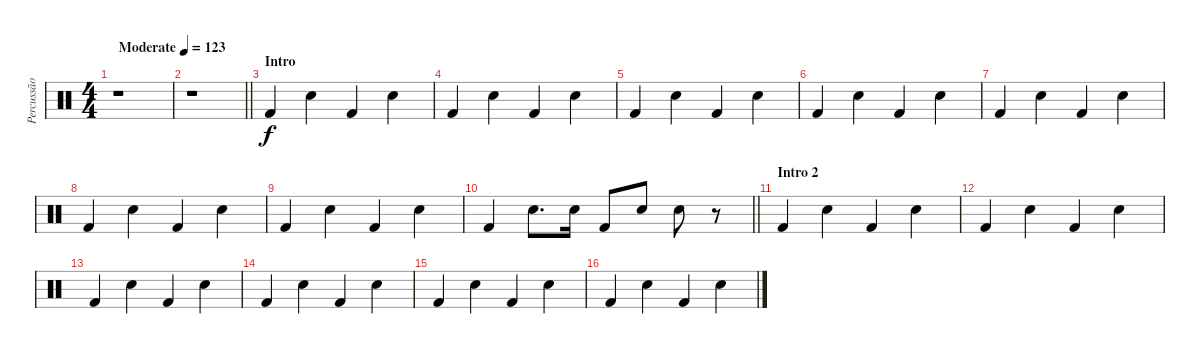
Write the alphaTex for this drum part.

\track ("Percussão" "Percussão") {instrument percussion}
\staff {score}
\articulation defaults
\ts (4 4)
\tempo (123 "Moderate")
\clef neutral
\ks c
r.1{dy f} |
\barLineRight lightlight
r.1 |
\section ("" "Intro")
"Kick (hit) 2".4 "Snare (hit) 2".4 "Kick (hit) 2".4 "Snare (hit) 2".4 |
"Kick (hit) 2".4 "Snare (hit) 2".4 "Kick (hit) 2".4 "Snare (hit) 2".4 |
"Kick (hit) 2".4 "Snare (hit) 2".4 "Kick (hit) 2".4 "Snare (hit) 2".4 |
"Kick (hit) 2".4 "Snare (hit) 2".4 "Kick (hit) 2".4 "Snare (hit) 2".4 |
"Kick (hit) 2".4 "Snare (hit) 2".4 "Kick (hit) 2".4 "Snare (hit) 2".4 |
"Kick (hit) 2".4 "Snare (hit) 2".4 "Kick (hit) 2".4 "Snare (hit) 2".4 |
"Kick (hit) 2".4 "Snare (hit) 2".4 "Kick (hit) 2".4 "Snare (hit) 2".4 |
\barLineRight lightlight "Kick (hit) 2".4 "Snare (hit) 2".8{d} "Snare (hit) 2".16 "Kick (hit) 2".8 "Snare (hit) 2".8 "Snare (hit) 2".8
r.8 |
\section ("" "Intro 2")
"Kick (hit) 2".4 "Snare (hit) 2".4 "Kick (hit) 2".4 "Snare (hit) 2".4 |
"Kick (hit) 2".4 "Snare (hit) 2".4 "Kick (hit) 2".4 "Snare (hit) 2".4 |
"Kick (hit) 2".4 "Snare (hit) 2".4 "Kick (hit) 2".4 "Snare (hit) 2".4 |
"Kick (hit) 2".4 "Snare (hit) 2".4 "Kick (hit) 2".4 "Snare (hit) 2".4 |
"Kick (hit) 2".4 "Snare (hit) 2".4 "Kick (hit) 2".4 "Snare (hit) 2".4 |
"Kick (hit) 2".4 "Snare (hit) 2".4 "Kick (hit) 2".4 "Snare (hit) 2".4
